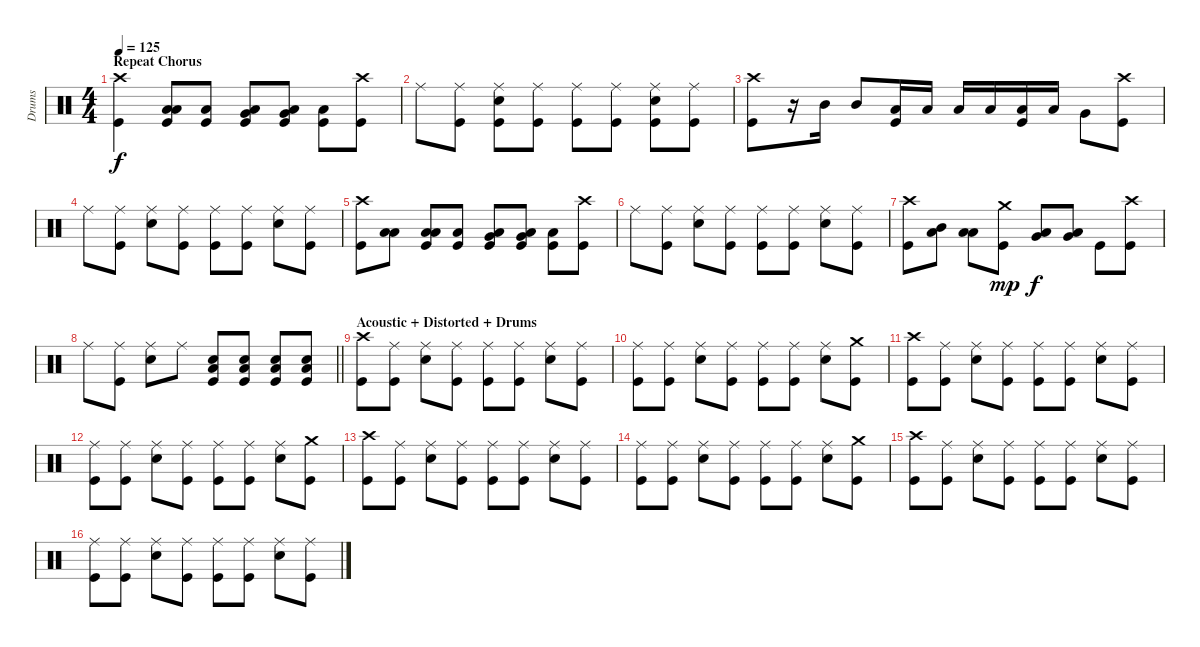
\track ("Drums" "Drums") {instrument percussion}
\staff {score}
\articulation defaults
\ts (4 4)
\section ("" "Repeat Chorus")
\tempo 125
\clef neutral
\ks c
("Crash high (hit)" "Kick (hit)").4{dy f} ("Low Tom (hit)" "Low Floor Tom (hit)" "Kick (hit)").8 ("Low Floor Tom (hit)" "Kick (hit)").8 ("Very Low Tom (hit)" "Low Floor Tom (hit)" "Kick (hit)").8 ("Very Low Tom (hit)" "Low Floor Tom (hit)" "Kick (hit)").8 ("Low Floor Tom (hit)" "Kick (hit)").8 ("Crash high (hit)" "Kick (hit)").8 |
"Ride (middle)".8 ("Ride (middle)" "Kick (hit)").8 ("Ride (middle)" "Snare (hit) 2" "Kick (hit)").8 ("Ride (middle)" "Kick (hit)").8 ("Ride (middle)" "Kick (hit)").8 ("Ride (middle)" "Kick (hit)").8 ("Ride (middle)" "Snare (hit) 2" "Kick (hit)").8 ("Ride (middle)" "Kick (hit)").8 |
("Crash high (hit)" "Kick (hit)").8 r.16 "Mid Tom (hit)".16 "Mid Tom (hit)".8 ("Low Tom (hit)" "Kick (hit)").16 "Low Tom (hit)".16 "Low Tom (hit)".16 "Low Tom (hit)".16 ("Low Tom (hit)" "Kick (hit)").16 "Low Tom (hit)".16 "Very Low Tom (hit)".8 ("Crash high (hit)" "Kick (hit)").8 |
"Ride (middle)".8 ("Ride (middle)" "Kick (hit)").8 ("Ride (middle)" "Snare (hit) 2").8 ("Ride (middle)" "Kick (hit)").8 ("Ride (middle)" "Kick (hit)").8 ("Ride (middle)" "Kick (hit)").8 ("Ride (middle)" "Snare (hit) 2").8 ("Ride (middle)" "Kick (hit)").8 |
("Crash high (hit)" "Kick (hit)").8 ("Low Tom (hit)" "Low Floor Tom (hit)").8 ("Low Tom (hit)" "Low Floor Tom (hit)" "Kick (hit)").8 ("Low Floor Tom (hit)" "Kick (hit)").8 ("Very Low Tom (hit)" "Low Floor Tom (hit)" "Kick (hit)").8 ("Very Low Tom (hit)" "Low Floor Tom (hit)" "Kick (hit)").8 ("Low Floor Tom (hit)" "Kick (hit)").8 ("Crash high (hit)" "Kick (hit)").8 |
"Ride (middle)".8 ("Ride (middle)" "Kick (hit)").8 ("Ride (middle)" "Snare (hit) 2").8 ("Ride (middle)" "Kick (hit)").8 ("Ride (middle)" "Kick (hit)").8 ("Ride (middle)" "Kick (hit)").8 ("Ride (middle)" "Snare (hit) 2").8 ("Ride (middle)" "Kick (hit)").8 |
("Crash high (hit)" "Kick (hit)").8 ("Mid Tom (hit)" "Low Floor Tom (hit)").8 ("Low Tom (hit)" "Low Floor Tom (hit)").8 ("Crash medium (hit)" "Kick (hit)").8{dy mp} ("Very Low Tom (hit)" "Low Floor Tom (hit)").8{dy f} ("Very Low Tom (hit)" "Low Floor Tom (hit)").8 "Kick (hit)".8 ("Crash high (hit)" "Kick (hit)").8 |
\barLineRight lightlight "Ride (middle)".8
("Ride (middle)" "Kick (hit)").8 ("Ride (middle)" "Snare (hit) 2").8 "Ride (middle)".8 ("Snare (hit) 2" "Low Floor Tom (hit)" "Kick (hit)").8 ("Snare (hit) 2" "Low Floor Tom (hit)" "Kick (hit)").8 ("Snare (hit) 2" "Low Floor Tom (hit)" "Kick (hit)").8 ("Snare (hit) 2" "Low Floor Tom (hit)" "Kick (hit)").8 |
\section ("" "Acoustic + Distorted + Drums")
("Crash high (hit)" "Kick (hit)").8 ("Ride (middle)" "Kick (hit)").8 ("Ride (middle)" "Snare (hit) 2").8 ("Ride (middle)" "Kick (hit)").8 ("Ride (middle)" "Kick (hit)").8 ("Ride (middle)" "Kick (hit)").8 ("Ride (middle)" "Snare (hit) 2").8 ("Ride (middle)" "Kick (hit)").8 |
("Ride (middle)" "Kick (hit)").8 ("Ride (middle)" "Kick (hit)").8 ("Ride (middle)" "Snare (hit) 2").8 ("Ride (middle)" "Kick (hit)").8 ("Ride (middle)" "Kick (hit)").8 ("Ride (middle)" "Kick (hit)").8 ("Ride (middle)" "Snare (hit) 2").8 ("Crash medium (hit)" "Kick (hit)").8 |
("Crash high (hit)" "Kick (hit)").8 ("Ride (middle)" "Kick (hit)").8 ("Ride (middle)" "Snare (hit) 2").8 ("Ride (middle)" "Kick (hit)").8 ("Ride (middle)" "Kick (hit)").8 ("Ride (middle)" "Kick (hit)").8 ("Ride (middle)" "Snare (hit) 2").8 ("Ride (middle)" "Kick (hit)").8 |
("Ride (middle)" "Kick (hit)").8 ("Ride (middle)" "Kick (hit)").8 ("Ride (middle)" "Snare (hit) 2").8 ("Ride (middle)" "Kick (hit)").8 ("Ride (middle)" "Kick (hit)").8 ("Ride (middle)" "Kick (hit)").8 ("Ride (middle)" "Snare (hit) 2").8 ("Crash medium (hit)" "Kick (hit)").8 |
("Crash high (hit)" "Kick (hit)").8 ("Ride (middle)" "Kick (hit)").8 ("Ride (middle)" "Snare (hit) 2").8 ("Ride (middle)" "Kick (hit)").8 ("Ride (middle)" "Kick (hit)").8 ("Ride (middle)" "Kick (hit)").8 ("Ride (middle)" "Snare (hit) 2").8 ("Ride (middle)" "Kick (hit)").8 |
("Ride (middle)" "Kick (hit)").8 ("Ride (middle)" "Kick (hit)").8 ("Ride (middle)" "Snare (hit) 2").8 ("Ride (middle)" "Kick (hit)").8 ("Ride (middle)" "Kick (hit)").8 ("Ride (middle)" "Kick (hit)").8 ("Ride (middle)" "Snare (hit) 2").8 ("Crash medium (hit)" "Kick (hit)").8 |
("Crash high (hit)" "Kick (hit)").8 ("Ride (middle)" "Kick (hit)").8 ("Ride (middle)" "Snare (hit) 2").8 ("Ride (middle)" "Kick (hit)").8 ("Ride (middle)" "Kick (hit)").8 ("Ride (middle)" "Kick (hit)").8 ("Ride (middle)" "Snare (hit) 2").8 ("Ride (middle)" "Kick (hit)").8 |
("Ride (middle)" "Kick (hit)").8 ("Ride (middle)" "Kick (hit)").8 ("Ride (middle)" "Snare (hit) 2").8 ("Ride (middle)" "Kick (hit)").8 ("Ride (middle)" "Kick (hit)").8 ("Ride (middle)" "Kick (hit)").8 ("Ride (middle)" "Snare (hit) 2").8 ("Ride (middle)" "Kick (hit)").8
